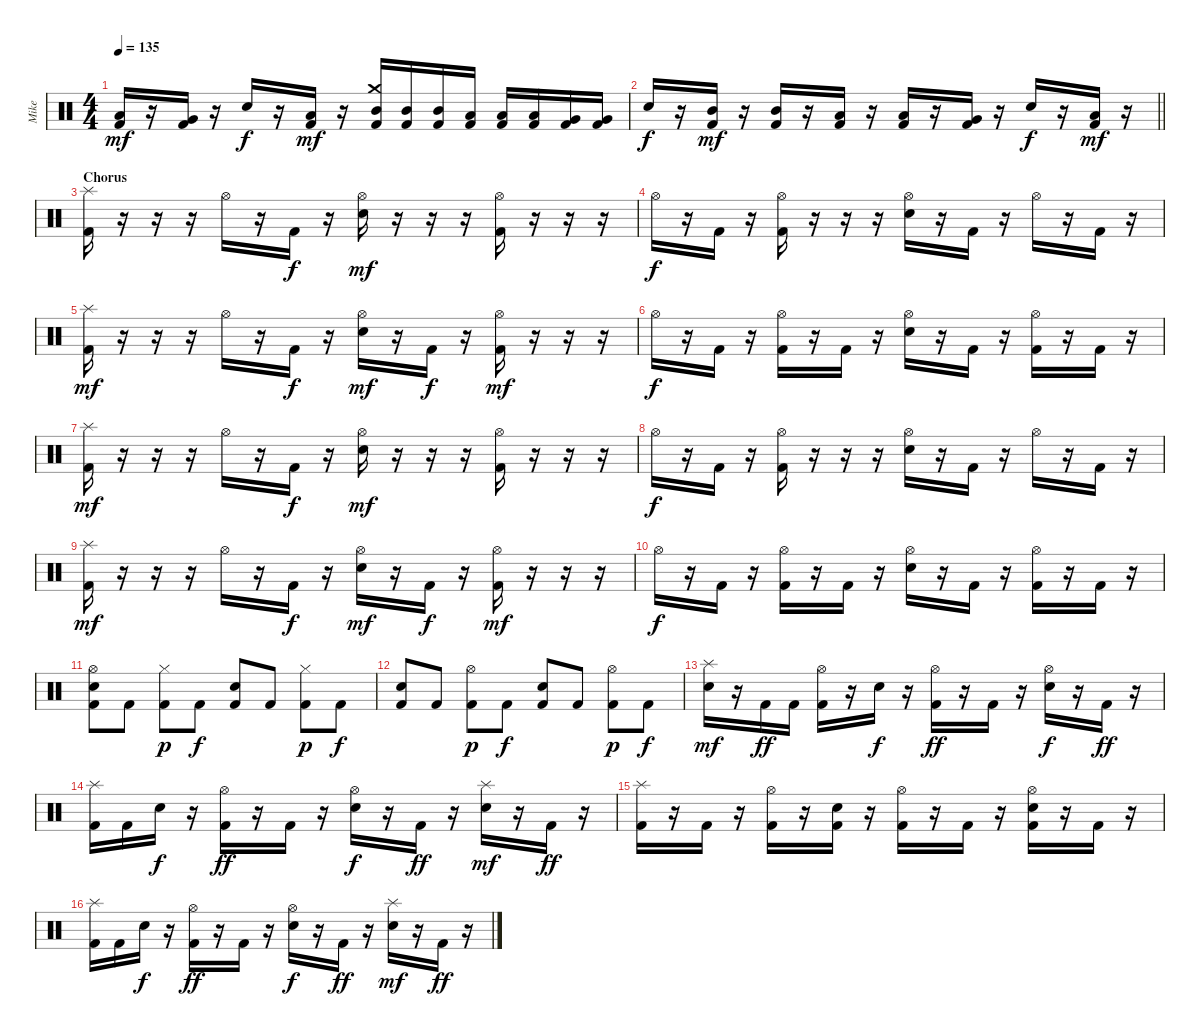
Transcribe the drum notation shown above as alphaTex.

\track ("Mike" "Mike") {instrument percussion}
\staff {score}
\articulation defaults
\ts (4 4)
\tempo 135
\clef neutral
\ks c
("Low Tom (hit)" "Kick (hit) 2").16{dy mf} r.16 ("Very Low Tom (hit)" "Kick (hit) 2").16 r.16 "Snare (hit) 2".16{dy f} r.16 ("Low Tom (hit)" "Kick (hit) 2").16{dy mf} r.16 ("Crash medium (hit)" "Mid Tom (hit)" "Kick (hit) 2").16 ("Mid Tom (hit)" "Kick (hit) 2").16 ("Mid Tom (hit)" "Kick (hit) 2").16 ("Low Tom (hit)" "Kick (hit) 2").16 ("Low Tom (hit)" "Kick (hit) 2").16 ("Low Tom (hit)" "Kick (hit) 2").16 ("Very Low Tom (hit)" "Kick (hit) 2").16 ("Very Low Tom (hit)" "Kick (hit) 2").16 |
\barLineRight lightlight "Snare (hit) 2".16{dy f}
r.16 ("Mid Tom (hit)" "Kick (hit) 2").16{dy mf} r.16 ("Mid Tom (hit)" "Kick (hit) 2").16 r.16 ("Low Tom (hit)" "Kick (hit) 2").16 r.16 ("Low Tom (hit)" "Kick (hit) 2").16 r.16 ("Very Low Tom (hit)" "Kick (hit) 2").16 r.16 "Snare (hit) 2".16{dy f} r.16 ("Low Tom (hit)" "Kick (hit) 2").16{dy mf} r.16 |
\section ("" "Chorus")
("Splash (hit)" "Kick (hit) 2").16 r.16 r.16 r.16 "Hi-Hat (open)".16 r.16 "Kick (hit) 2".16{dy f} r.16 ("Hi-Hat (open)" "Snare (hit) 2").16{dy mf} r.16 r.16 r.16 ("Hi-Hat (open)" "Kick (hit) 2").16 r.16 r.16 r.16 |
"Hi-Hat (open)".16{dy f} r.16 "Kick (hit) 2".16 r.16 ("Hi-Hat (open)" "Kick (hit) 2").16 r.16 r.16 r.16 ("Hi-Hat (open)" "Snare (hit) 2").16 r.16 "Kick (hit) 2".16 r.16 "Hi-Hat (open)".16 r.16 "Kick (hit) 2".16 r.16 |
("Splash (hit)" "Kick (hit) 2").16{dy mf} r.16 r.16 r.16 "Hi-Hat (open)".16 r.16 "Kick (hit) 2".16{dy f} r.16 ("Hi-Hat (open)" "Snare (hit) 2").16{dy mf} r.16 "Kick (hit) 2".16{dy f} r.16 ("Hi-Hat (open)" "Kick (hit) 2").16{dy mf} r.16 r.16 r.16 |
"Hi-Hat (open)".16{dy f} r.16 "Kick (hit) 2".16 r.16 ("Hi-Hat (open)" "Kick (hit) 2").16 r.16 "Kick (hit) 2".16 r.16 ("Hi-Hat (open)" "Snare (hit) 2").16 r.16 "Kick (hit) 2".16 r.16 ("Hi-Hat (open)" "Kick (hit) 2").16 r.16 "Kick (hit) 2".16 r.16 |
("Splash (hit)" "Kick (hit) 2").16{dy mf} r.16 r.16 r.16 "Hi-Hat (open)".16 r.16 "Kick (hit) 2".16{dy f} r.16 ("Hi-Hat (open)" "Snare (hit) 2").16{dy mf} r.16 r.16 r.16 ("Hi-Hat (open)" "Kick (hit) 2").16 r.16 r.16 r.16 |
"Hi-Hat (open)".16{dy f} r.16 "Kick (hit) 2".16 r.16 ("Hi-Hat (open)" "Kick (hit) 2").16 r.16 r.16 r.16 ("Hi-Hat (open)" "Snare (hit) 2").16 r.16 "Kick (hit) 2".16 r.16 "Hi-Hat (open)".16 r.16 "Kick (hit) 2".16 r.16 |
("Splash (hit)" "Kick (hit) 2").16{dy mf} r.16 r.16 r.16 "Hi-Hat (open)".16 r.16 "Kick (hit) 2".16{dy f} r.16 ("Hi-Hat (open)" "Snare (hit) 2").16{dy mf} r.16 "Kick (hit) 2".16{dy f} r.16 ("Hi-Hat (open)" "Kick (hit) 2").16{dy mf} r.16 r.16 r.16 |
"Hi-Hat (open)".16{dy f} r.16 "Kick (hit) 2".16 r.16 ("Hi-Hat (open)" "Kick (hit) 2").16 r.16 "Kick (hit) 2".16 r.16 ("Hi-Hat (open)" "Snare (hit) 2").16 r.16 "Kick (hit) 2".16 r.16 ("Hi-Hat (open)" "Kick (hit) 2").16 r.16 "Kick (hit) 2".16 r.16 |
("Hi-Hat (open)" "Snare (hit) 2" "Kick (hit) 2").8 "Kick (hit) 2".8 ("Hi-Hat (closed)" "Kick (hit) 2").8{dy p} "Kick (hit) 2".8{dy f} ("Snare (hit) 2" "Kick (hit) 2").8 "Kick (hit) 2".8 ("Hi-Hat (closed)" "Kick (hit) 2").8{dy p} "Kick (hit) 2".8{dy f} |
("Snare (hit) 2" "Kick (hit) 2").8 "Kick (hit) 2".8 ("Hi-Hat (open)" "Kick (hit) 2").8{dy p} "Kick (hit) 2".8{dy f} ("Snare (hit) 2" "Kick (hit) 2").8 "Kick (hit) 2".8 ("Hi-Hat (open)" "Kick (hit) 2").8{dy p} "Kick (hit) 2".8{dy f} |
("Splash (hit)" "Snare (hit) 2").16{dy mf} r.16 "Kick (hit) 2".16{dy ff} "Kick (hit) 2".16 ("Hi-Hat (open)" "Kick (hit) 2").16 r.16 "Snare (hit) 2".16{dy f} r.16 ("Hi-Hat (open)" "Kick (hit) 2").16{dy ff} r.16 "Kick (hit) 2".16 r.16 ("Hi-Hat (open)" "Snare (hit) 2").16{dy f} r.16 "Kick (hit) 2".16{dy ff} r.16 |
("Splash (hit)" "Kick (hit) 2").16 "Kick (hit) 2".16 "Snare (hit) 2".16{dy f} r.16 ("Hi-Hat (open)" "Kick (hit) 2").16{dy ff} r.16 "Kick (hit) 2".16 r.16 ("Hi-Hat (open)" "Snare (hit) 2").16{dy f} r.16 "Kick (hit) 2".16{dy ff} r.16 ("Splash (hit)" "Snare (hit) 2").16{dy mf} r.16 "Kick (hit) 2".16{dy ff} r.16 |
("Splash (hit)" "Kick (hit) 2").16 r.16 "Kick (hit) 2".16 r.16 ("Hi-Hat (open)" "Kick (hit) 2").16 r.16 ("Snare (hit) 2" "Kick (hit) 2").16 r.16 ("Hi-Hat (open)" "Kick (hit) 2").16 r.16 "Kick (hit) 2".16 r.16 ("Hi-Hat (open)" "Snare (hit) 2" "Kick (hit) 2").16 r.16 "Kick (hit) 2".16 r.16 |
("Splash (hit)" "Kick (hit) 2").16 "Kick (hit) 2".16 "Snare (hit) 2".16{dy f} r.16 ("Hi-Hat (open)" "Kick (hit) 2").16{dy ff} r.16 "Kick (hit) 2".16 r.16 ("Hi-Hat (open)" "Snare (hit) 2").16{dy f} r.16 "Kick (hit) 2".16{dy ff} r.16 ("Splash (hit)" "Snare (hit) 2").16{dy mf} r.16 "Kick (hit) 2".16{dy ff} r.16
